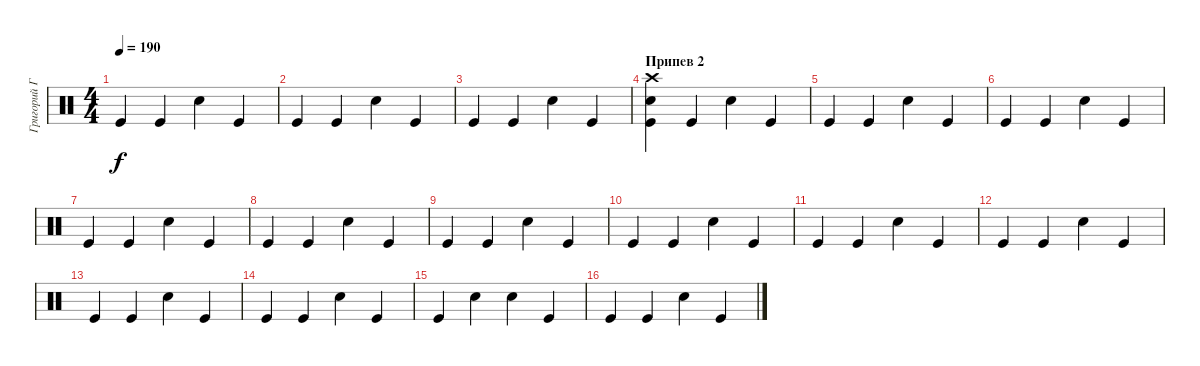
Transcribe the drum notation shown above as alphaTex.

\track ("Григорий Габерман" "Григорий Г") {instrument percussion}
\staff {score}
\articulation defaults
\ts (4 4)
\tempo 190
\clef neutral
\ks c "Kick (hit)".4{dy f} "Kick (hit)".4 "Snare (hit) 2".4 "Kick (hit)".4
|
"Kick (hit)".4 "Kick (hit)".4 "Snare (hit) 2".4 "Kick (hit)".4 |
"Kick (hit)".4 "Kick (hit)".4 "Snare (hit) 2".4 "Kick (hit)".4 |
\section ("" "Припев 2")
("Crash high (hit)" "Kick (hit)" "Snare (hit) 2").4 "Kick (hit)".4 "Snare (hit) 2".4 "Kick (hit)".4 |
"Kick (hit)".4 "Kick (hit)".4 "Snare (hit) 2".4 "Kick (hit)".4 |
"Kick (hit)".4 "Kick (hit)".4 "Snare (hit) 2".4 "Kick (hit)".4 |
"Kick (hit)".4 "Kick (hit)".4 "Snare (hit) 2".4 "Kick (hit)".4 |
"Kick (hit)".4 "Kick (hit)".4 "Snare (hit) 2".4 "Kick (hit)".4 |
"Kick (hit)".4 "Kick (hit)".4 "Snare (hit) 2".4 "Kick (hit)".4 |
"Kick (hit)".4 "Kick (hit)".4 "Snare (hit) 2".4 "Kick (hit)".4 |
"Kick (hit)".4 "Kick (hit)".4 "Snare (hit) 2".4 "Kick (hit)".4 |
"Kick (hit)".4 "Kick (hit)".4 "Snare (hit) 2".4 "Kick (hit)".4 |
"Kick (hit)".4 "Kick (hit)".4 "Snare (hit) 2".4 "Kick (hit)".4 |
"Kick (hit)".4 "Kick (hit)".4 "Snare (hit) 2".4 "Kick (hit)".4 |
"Kick (hit)".4 "Snare (hit) 2".4 "Snare (hit) 2".4 "Kick (hit)".4 |
"Kick (hit)".4 "Kick (hit)".4 "Snare (hit) 2".4 "Kick (hit)".4
